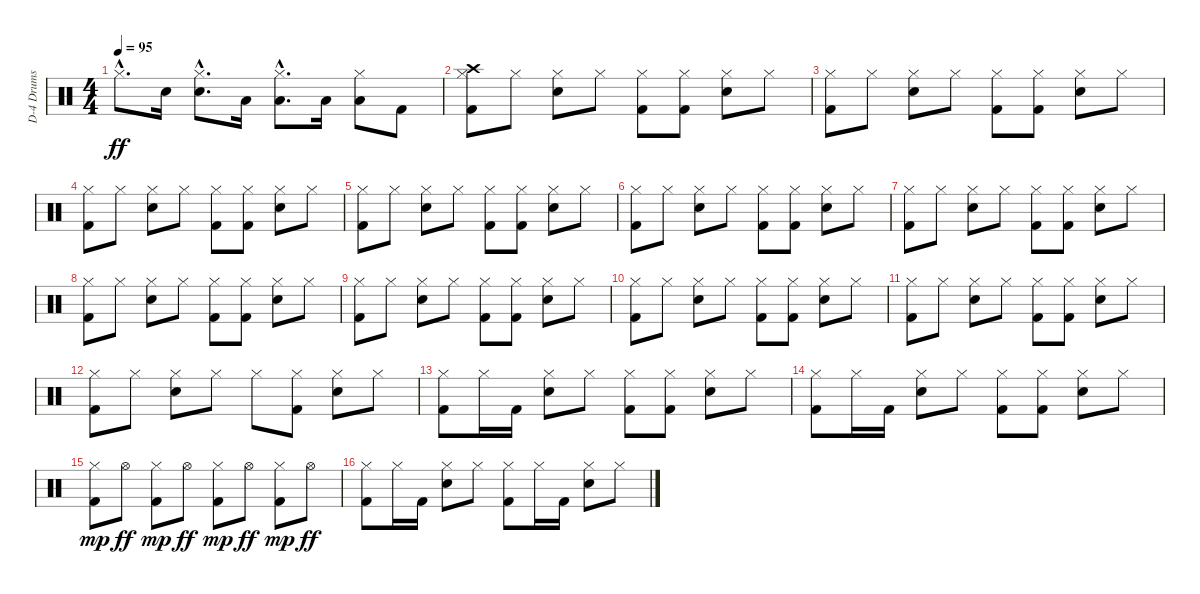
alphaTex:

\track ("D-4 Drums" "D-4 Drums") {instrument percussion}
\staff {score}
\articulation defaults
\ts (4 4)
\tempo 95
\clef neutral
\ks c "Hi-Hat (closed)"{hac}.8{d dy ff} "Snare (hit) 2".16
("Snare (hit) 2" "Hi-Hat (closed)"{hac}).8{d} "Low Tom (hit)".16 ("Hi-Hat (closed)"{hac} "Low Tom (hit)").8{d} "Low Floor Tom (hit)".16 ("Hi-Hat (closed)" "Low Floor Tom (hit)").8 "Kick (hit) 2".8 |
("Kick (hit) 2" "Hi-Hat (closed)" "Crash high (hit)").8 "Hi-Hat (closed)".8 ("Snare (hit) 2" "Hi-Hat (closed)").8 "Hi-Hat (closed)".8 ("Kick (hit) 2" "Hi-Hat (closed)").8 ("Kick (hit) 2" "Hi-Hat (closed)").8 ("Snare (hit) 2" "Hi-Hat (closed)").8 "Hi-Hat (closed)".8 |
("Kick (hit) 2" "Hi-Hat (closed)").8 "Hi-Hat (closed)".8 ("Snare (hit) 2" "Hi-Hat (closed)").8 "Hi-Hat (closed)".8 ("Kick (hit) 2" "Hi-Hat (closed)").8 ("Kick (hit) 2" "Hi-Hat (closed)").8 ("Snare (hit) 2" "Hi-Hat (closed)").8 "Hi-Hat (closed)".8 |
("Kick (hit) 2" "Hi-Hat (closed)").8 "Hi-Hat (closed)".8 ("Snare (hit) 2" "Hi-Hat (closed)").8 "Hi-Hat (closed)".8 ("Kick (hit) 2" "Hi-Hat (closed)").8 ("Kick (hit) 2" "Hi-Hat (closed)").8 ("Snare (hit) 2" "Hi-Hat (closed)").8 "Hi-Hat (closed)".8 |
("Kick (hit) 2" "Hi-Hat (closed)").8 "Hi-Hat (closed)".8 ("Snare (hit) 2" "Hi-Hat (closed)").8 "Hi-Hat (closed)".8 ("Kick (hit) 2" "Hi-Hat (closed)").8 ("Kick (hit) 2" "Hi-Hat (closed)").8 ("Snare (hit) 2" "Hi-Hat (closed)").8 "Hi-Hat (closed)".8 |
("Kick (hit) 2" "Hi-Hat (closed)").8 "Hi-Hat (closed)".8 ("Snare (hit) 2" "Hi-Hat (closed)").8 "Hi-Hat (closed)".8 ("Kick (hit) 2" "Hi-Hat (closed)").8 ("Kick (hit) 2" "Hi-Hat (closed)").8 ("Snare (hit) 2" "Hi-Hat (closed)").8 "Hi-Hat (closed)".8 |
("Kick (hit) 2" "Hi-Hat (closed)").8 "Hi-Hat (closed)".8 ("Snare (hit) 2" "Hi-Hat (closed)").8 "Hi-Hat (closed)".8 ("Kick (hit) 2" "Hi-Hat (closed)").8 ("Kick (hit) 2" "Hi-Hat (closed)").8 ("Snare (hit) 2" "Hi-Hat (closed)").8 "Hi-Hat (closed)".8 |
("Kick (hit) 2" "Hi-Hat (closed)").8 "Hi-Hat (closed)".8 ("Snare (hit) 2" "Hi-Hat (closed)").8 "Hi-Hat (closed)".8 ("Kick (hit) 2" "Hi-Hat (closed)").8 ("Kick (hit) 2" "Hi-Hat (closed)").8 ("Snare (hit) 2" "Hi-Hat (closed)").8 "Hi-Hat (closed)".8 |
("Kick (hit) 2" "Hi-Hat (closed)").8 "Hi-Hat (closed)".8 ("Snare (hit) 2" "Hi-Hat (closed)").8 "Hi-Hat (closed)".8 ("Kick (hit) 2" "Hi-Hat (closed)").8 ("Kick (hit) 2" "Hi-Hat (closed)").8 ("Snare (hit) 2" "Hi-Hat (closed)").8 "Hi-Hat (closed)".8 |
("Kick (hit) 2" "Hi-Hat (closed)").8 "Hi-Hat (closed)".8 ("Snare (hit) 2" "Hi-Hat (closed)").8 "Hi-Hat (closed)".8 ("Kick (hit) 2" "Hi-Hat (closed)").8 ("Kick (hit) 2" "Hi-Hat (closed)").8 ("Snare (hit) 2" "Hi-Hat (closed)").8 "Hi-Hat (closed)".8 |
("Kick (hit) 2" "Hi-Hat (closed)").8 "Hi-Hat (closed)".8 ("Snare (hit) 2" "Hi-Hat (closed)").8 "Hi-Hat (closed)".8 ("Kick (hit) 2" "Hi-Hat (closed)").8 ("Kick (hit) 2" "Hi-Hat (closed)").8 ("Snare (hit) 2" "Hi-Hat (closed)").8 "Hi-Hat (closed)".8 |
("Kick (hit) 2" "Hi-Hat (closed)").8 "Hi-Hat (closed)".8 ("Snare (hit) 2" "Hi-Hat (closed)").8 "Hi-Hat (closed)".8 "Hi-Hat (closed)".8 ("Kick (hit) 2" "Hi-Hat (closed)").8 ("Snare (hit) 2" "Hi-Hat (closed)").8 "Hi-Hat (closed)".8 |
("Kick (hit) 2" "Hi-Hat (closed)").8 "Hi-Hat (closed)".16 "Kick (hit) 2".16 ("Snare (hit) 2" "Hi-Hat (closed)").8 "Hi-Hat (closed)".8 ("Kick (hit) 2" "Hi-Hat (closed)").8 ("Kick (hit) 2" "Hi-Hat (closed)").8 ("Snare (hit) 2" "Hi-Hat (closed)").8 "Hi-Hat (closed)".8 |
("Kick (hit) 2" "Hi-Hat (closed)").8 "Hi-Hat (closed)".16 "Kick (hit) 2".16 ("Snare (hit) 2" "Hi-Hat (closed)").8 "Hi-Hat (closed)".8 ("Kick (hit) 2" "Hi-Hat (closed)").8 ("Kick (hit) 2" "Hi-Hat (closed)").8 ("Snare (hit) 2" "Hi-Hat (closed)").8 "Hi-Hat (closed)".8 |
("Kick (hit) 2" "Hi-Hat (closed)").8{dy mp} "Hi-Hat (open)".8{dy ff} ("Kick (hit) 2" "Hi-Hat (closed)").8{dy mp} "Hi-Hat (open)".8{dy ff} ("Kick (hit) 2" "Hi-Hat (closed)").8{dy mp} "Hi-Hat (open)".8{dy ff} ("Kick (hit) 2" "Hi-Hat (closed)").8{dy mp} "Hi-Hat (open)".8{dy ff} |
("Kick (hit) 2" "Hi-Hat (closed)").8 "Hi-Hat (closed)".16 "Kick (hit) 2".16 ("Snare (hit) 2" "Hi-Hat (closed)").8 "Hi-Hat (closed)".8 ("Kick (hit) 2" "Hi-Hat (closed)").8 "Hi-Hat (closed)".16 "Kick (hit) 2".16 ("Snare (hit) 2" "Hi-Hat (closed)").8 "Hi-Hat (closed)".8
